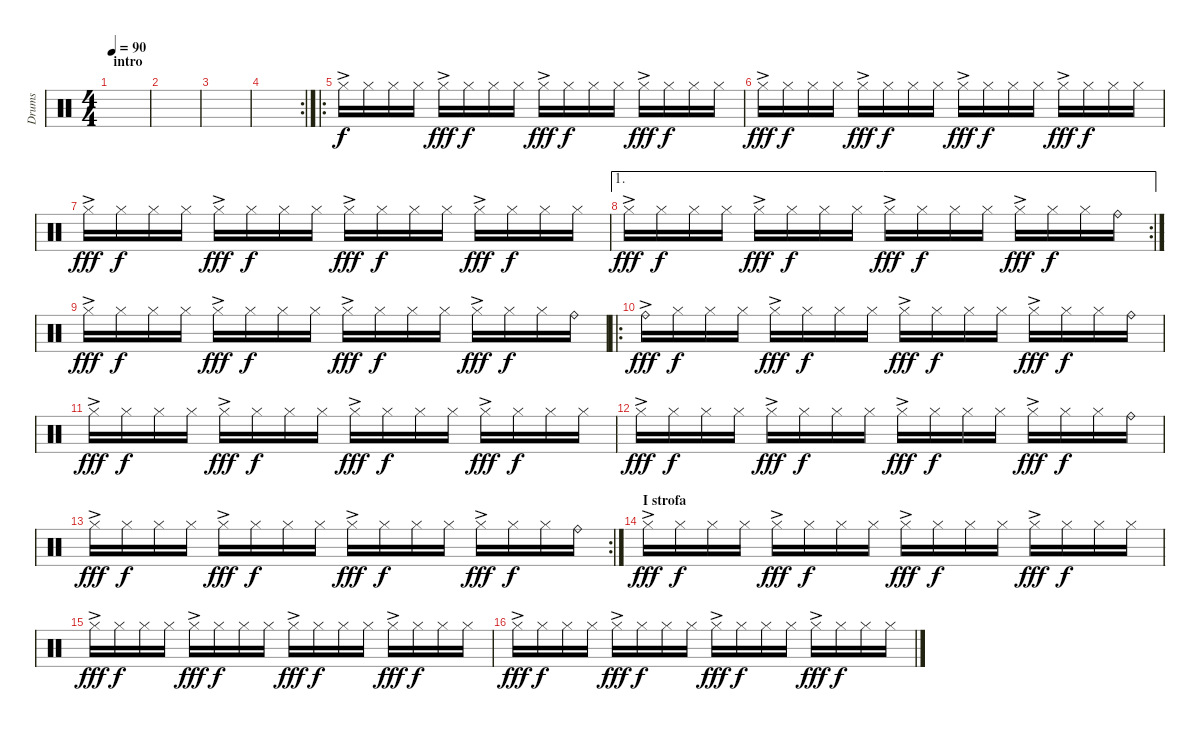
\track ("Drums" "Drums") {instrument percussion}
\staff {score}
\articulation defaults
\ts (4 4)
\section ("" "intro")
\tempo 90
\clef neutral
\ks aminor
|
|
|
\rc 2
|
\ro "Hi-Hat (closed)"{ac}.16 "Hi-Hat (closed)".16{dy f} "Hi-Hat (closed)".16 "Hi-Hat (closed)".16 "Hi-Hat (closed)"{ac}.16{dy fff} "Hi-Hat (closed)".16{dy f} "Hi-Hat (closed)".16 "Hi-Hat (closed)".16 "Hi-Hat (closed)"{ac}.16{dy fff} "Hi-Hat (closed)".16{dy f} "Hi-Hat (closed)".16 "Hi-Hat (closed)".16 "Hi-Hat (closed)"{ac}.16{dy fff} "Hi-Hat (closed)".16{dy f} "Hi-Hat (closed)".16 "Hi-Hat (closed)".16
|
"Hi-Hat (closed)"{ac}.16{dy fff} "Hi-Hat (closed)".16{dy f} "Hi-Hat (closed)".16 "Hi-Hat (closed)".16 "Hi-Hat (closed)"{ac}.16{dy fff} "Hi-Hat (closed)".16{dy f} "Hi-Hat (closed)".16 "Hi-Hat (closed)".16 "Hi-Hat (closed)"{ac}.16{dy fff} "Hi-Hat (closed)".16{dy f} "Hi-Hat (closed)".16 "Hi-Hat (closed)".16 "Hi-Hat (closed)"{ac}.16{dy fff} "Hi-Hat (closed)".16{dy f} "Hi-Hat (closed)".16 "Hi-Hat (closed)".16 |
"Hi-Hat (closed)"{ac}.16{dy fff} "Hi-Hat (closed)".16{dy f} "Hi-Hat (closed)".16 "Hi-Hat (closed)".16 "Hi-Hat (closed)"{ac}.16{dy fff} "Hi-Hat (closed)".16{dy f} "Hi-Hat (closed)".16 "Hi-Hat (closed)".16 "Hi-Hat (closed)"{ac}.16{dy fff} "Hi-Hat (closed)".16{dy f} "Hi-Hat (closed)".16 "Hi-Hat (closed)".16 "Hi-Hat (closed)"{ac}.16{dy fff} "Hi-Hat (closed)".16{dy f} "Hi-Hat (closed)".16 "Hi-Hat (closed)".16 |
\ae 1
\rc 2 "Hi-Hat (closed)"{ac}.16{dy fff} "Hi-Hat (closed)".16{dy f} "Hi-Hat (closed)".16 "Hi-Hat (closed)".16 "Hi-Hat (closed)"{ac}.16{dy fff} "Hi-Hat (closed)".16{dy f} "Hi-Hat (closed)".16 "Hi-Hat (closed)".16 "Hi-Hat (closed)"{ac}.16{dy fff} "Hi-Hat (closed)".16{dy f} "Hi-Hat (closed)".16 "Hi-Hat (closed)".16 "Hi-Hat (closed)"{ac}.16{dy fff} "Hi-Hat (closed)".16{dy f} "Hi-Hat (closed)".16 "Ride (bell)".16
|
"Hi-Hat (closed)"{ac}.16{dy fff} "Hi-Hat (closed)".16{dy f} "Hi-Hat (closed)".16 "Hi-Hat (closed)".16 "Hi-Hat (closed)"{ac}.16{dy fff} "Hi-Hat (closed)".16{dy f} "Hi-Hat (closed)".16 "Hi-Hat (closed)".16 "Hi-Hat (closed)"{ac}.16{dy fff} "Hi-Hat (closed)".16{dy f} "Hi-Hat (closed)".16 "Hi-Hat (closed)".16 "Hi-Hat (closed)"{ac}.16{dy fff} "Hi-Hat (closed)".16{dy f} "Hi-Hat (closed)".16 "Ride (bell)".16 |
\ro "Ride (bell)"{ac}.16{dy fff} "Hi-Hat (closed)".16{dy f} "Hi-Hat (closed)".16 "Hi-Hat (closed)".16 "Hi-Hat (closed)"{ac}.16{dy fff} "Hi-Hat (closed)".16{dy f} "Hi-Hat (closed)".16 "Hi-Hat (closed)".16 "Hi-Hat (closed)"{ac}.16{dy fff} "Hi-Hat (closed)".16{dy f} "Hi-Hat (closed)".16 "Hi-Hat (closed)".16 "Hi-Hat (closed)"{ac}.16{dy fff} "Hi-Hat (closed)".16{dy f} "Hi-Hat (closed)".16 "Ride (bell)".16
|
"Hi-Hat (closed)"{ac}.16{dy fff} "Hi-Hat (closed)".16{dy f} "Hi-Hat (closed)".16 "Hi-Hat (closed)".16 "Hi-Hat (closed)"{ac}.16{dy fff} "Hi-Hat (closed)".16{dy f} "Hi-Hat (closed)".16 "Hi-Hat (closed)".16 "Hi-Hat (closed)"{ac}.16{dy fff} "Hi-Hat (closed)".16{dy f} "Hi-Hat (closed)".16 "Hi-Hat (closed)".16 "Hi-Hat (closed)"{ac}.16{dy fff} "Hi-Hat (closed)".16{dy f} "Hi-Hat (closed)".16 "Hi-Hat (closed)".16 |
"Hi-Hat (closed)"{ac}.16{dy fff} "Hi-Hat (closed)".16{dy f} "Hi-Hat (closed)".16 "Hi-Hat (closed)".16 "Hi-Hat (closed)"{ac}.16{dy fff} "Hi-Hat (closed)".16{dy f} "Hi-Hat (closed)".16 "Hi-Hat (closed)".16 "Hi-Hat (closed)"{ac}.16{dy fff} "Hi-Hat (closed)".16{dy f} "Hi-Hat (closed)".16 "Hi-Hat (closed)".16 "Hi-Hat (closed)"{ac}.16{dy fff} "Hi-Hat (closed)".16{dy f} "Hi-Hat (closed)".16 "Ride (bell)".16 |
\rc 2 "Hi-Hat (closed)"{ac}.16{dy fff} "Hi-Hat (closed)".16{dy f} "Hi-Hat (closed)".16 "Hi-Hat (closed)".16 "Hi-Hat (closed)"{ac}.16{dy fff} "Hi-Hat (closed)".16{dy f} "Hi-Hat (closed)".16 "Hi-Hat (closed)".16 "Hi-Hat (closed)"{ac}.16{dy fff} "Hi-Hat (closed)".16{dy f} "Hi-Hat (closed)".16 "Hi-Hat (closed)".16 "Hi-Hat (closed)"{ac}.16{dy fff} "Hi-Hat (closed)".16{dy f} "Hi-Hat (closed)".16 "Ride (bell)".16
|
\section ("" "I strofa")
"Hi-Hat (closed)"{ac}.16{dy fff} "Hi-Hat (closed)".16{dy f} "Hi-Hat (closed)".16 "Hi-Hat (closed)".16 "Hi-Hat (closed)"{ac}.16{dy fff} "Hi-Hat (closed)".16{dy f} "Hi-Hat (closed)".16 "Hi-Hat (closed)".16 "Hi-Hat (closed)"{ac}.16{dy fff} "Hi-Hat (closed)".16{dy f} "Hi-Hat (closed)".16 "Hi-Hat (closed)".16 "Hi-Hat (closed)"{ac}.16{dy fff} "Hi-Hat (closed)".16{dy f} "Hi-Hat (closed)".16 "Hi-Hat (closed)".16 |
"Hi-Hat (closed)"{ac}.16{dy fff} "Hi-Hat (closed)".16{dy f} "Hi-Hat (closed)".16 "Hi-Hat (closed)".16 "Hi-Hat (closed)"{ac}.16{dy fff} "Hi-Hat (closed)".16{dy f} "Hi-Hat (closed)".16 "Hi-Hat (closed)".16 "Hi-Hat (closed)"{ac}.16{dy fff} "Hi-Hat (closed)".16{dy f} "Hi-Hat (closed)".16 "Hi-Hat (closed)".16 "Hi-Hat (closed)"{ac}.16{dy fff} "Hi-Hat (closed)".16{dy f} "Hi-Hat (closed)".16 "Hi-Hat (closed)".16 |
"Hi-Hat (closed)"{ac}.16{dy fff} "Hi-Hat (closed)".16{dy f} "Hi-Hat (closed)".16 "Hi-Hat (closed)".16 "Hi-Hat (closed)"{ac}.16{dy fff} "Hi-Hat (closed)".16{dy f} "Hi-Hat (closed)".16 "Hi-Hat (closed)".16 "Hi-Hat (closed)"{ac}.16{dy fff} "Hi-Hat (closed)".16{dy f} "Hi-Hat (closed)".16 "Hi-Hat (closed)".16 "Hi-Hat (closed)"{ac}.16{dy fff} "Hi-Hat (closed)".16{dy f} "Hi-Hat (closed)".16 "Hi-Hat (closed)".16
